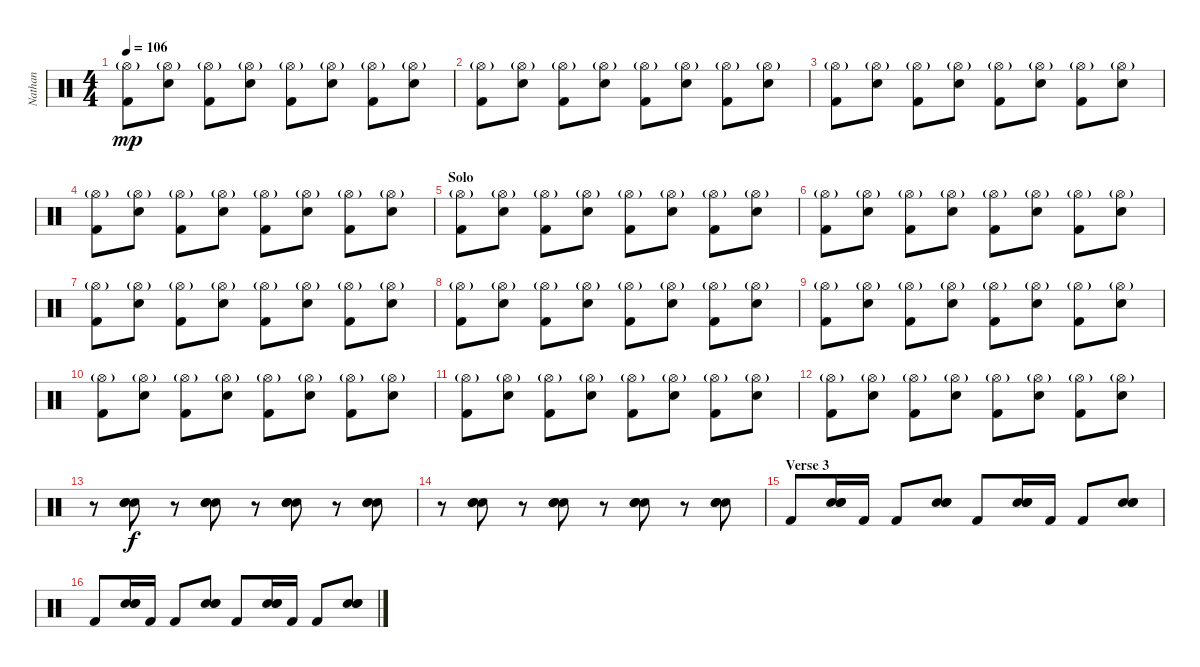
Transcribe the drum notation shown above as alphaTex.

\track ("Nathan" "Nathan") {instrument percussion}
\staff {score}
\articulation defaults
\ts (4 4)
\tempo 106
\clef neutral
\ks c
("Hi-Hat (open)"{g} "Kick (hit) 2").8{dy mp} ("Hi-Hat (open)"{g} "Snare (hit) 2").8 ("Hi-Hat (open)"{g} "Kick (hit) 2").8 ("Hi-Hat (open)"{g} "Snare (hit) 2").8 ("Hi-Hat (open)"{g} "Kick (hit) 2").8 ("Hi-Hat (open)"{g} "Snare (hit) 2").8 ("Hi-Hat (open)"{g} "Kick (hit) 2").8 ("Hi-Hat (open)"{g} "Snare (hit) 2").8 |
("Hi-Hat (open)"{g} "Kick (hit) 2").8 ("Hi-Hat (open)"{g} "Snare (hit) 2").8 ("Hi-Hat (open)"{g} "Kick (hit) 2").8 ("Hi-Hat (open)"{g} "Snare (hit) 2").8 ("Hi-Hat (open)"{g} "Kick (hit) 2").8 ("Hi-Hat (open)"{g} "Snare (hit) 2").8 ("Hi-Hat (open)"{g} "Kick (hit) 2").8 ("Hi-Hat (open)"{g} "Snare (hit) 2").8 |
("Hi-Hat (open)"{g} "Kick (hit) 2").8 ("Hi-Hat (open)"{g} "Snare (hit) 2").8 ("Hi-Hat (open)"{g} "Kick (hit) 2").8 ("Hi-Hat (open)"{g} "Snare (hit) 2").8 ("Hi-Hat (open)"{g} "Kick (hit) 2").8 ("Hi-Hat (open)"{g} "Snare (hit) 2").8 ("Hi-Hat (open)"{g} "Kick (hit) 2").8 ("Hi-Hat (open)"{g} "Snare (hit) 2").8 |
("Hi-Hat (open)"{g} "Kick (hit) 2").8 ("Hi-Hat (open)"{g} "Snare (hit) 2").8 ("Hi-Hat (open)"{g} "Kick (hit) 2").8 ("Hi-Hat (open)"{g} "Snare (hit) 2").8 ("Hi-Hat (open)"{g} "Kick (hit) 2").8 ("Hi-Hat (open)"{g} "Snare (hit) 2").8 ("Hi-Hat (open)"{g} "Kick (hit) 2").8 ("Hi-Hat (open)"{g} "Snare (hit) 2").8 |
\section ("" "Solo")
("Hi-Hat (open)"{g} "Kick (hit) 2").8 ("Hi-Hat (open)"{g} "Snare (hit) 2").8 ("Hi-Hat (open)"{g} "Kick (hit) 2").8 ("Hi-Hat (open)"{g} "Snare (hit) 2").8 ("Hi-Hat (open)"{g} "Kick (hit) 2").8 ("Hi-Hat (open)"{g} "Snare (hit) 2").8 ("Hi-Hat (open)"{g} "Kick (hit) 2").8 ("Hi-Hat (open)"{g} "Snare (hit) 2").8 |
("Hi-Hat (open)"{g} "Kick (hit) 2").8 ("Hi-Hat (open)"{g} "Snare (hit) 2").8 ("Hi-Hat (open)"{g} "Kick (hit) 2").8 ("Hi-Hat (open)"{g} "Snare (hit) 2").8 ("Hi-Hat (open)"{g} "Kick (hit) 2").8 ("Hi-Hat (open)"{g} "Snare (hit) 2").8 ("Hi-Hat (open)"{g} "Kick (hit) 2").8 ("Hi-Hat (open)"{g} "Snare (hit) 2").8 |
("Hi-Hat (open)"{g} "Kick (hit) 2").8 ("Hi-Hat (open)"{g} "Snare (hit) 2").8 ("Hi-Hat (open)"{g} "Kick (hit) 2").8 ("Hi-Hat (open)"{g} "Snare (hit) 2").8 ("Hi-Hat (open)"{g} "Kick (hit) 2").8 ("Hi-Hat (open)"{g} "Snare (hit) 2").8 ("Hi-Hat (open)"{g} "Kick (hit) 2").8 ("Hi-Hat (open)"{g} "Snare (hit) 2").8 |
("Hi-Hat (open)"{g} "Kick (hit) 2").8 ("Hi-Hat (open)"{g} "Snare (hit) 2").8 ("Hi-Hat (open)"{g} "Kick (hit) 2").8 ("Hi-Hat (open)"{g} "Snare (hit) 2").8 ("Hi-Hat (open)"{g} "Kick (hit) 2").8 ("Hi-Hat (open)"{g} "Snare (hit) 2").8 ("Hi-Hat (open)"{g} "Kick (hit) 2").8 ("Hi-Hat (open)"{g} "Snare (hit) 2").8 |
("Hi-Hat (open)"{g} "Kick (hit) 2").8 ("Hi-Hat (open)"{g} "Snare (hit) 2").8 ("Hi-Hat (open)"{g} "Kick (hit) 2").8 ("Hi-Hat (open)"{g} "Snare (hit) 2").8 ("Hi-Hat (open)"{g} "Kick (hit) 2").8 ("Hi-Hat (open)"{g} "Snare (hit) 2").8 ("Hi-Hat (open)"{g} "Kick (hit) 2").8 ("Hi-Hat (open)"{g} "Snare (hit) 2").8 |
("Hi-Hat (open)"{g} "Kick (hit) 2").8 ("Hi-Hat (open)"{g} "Snare (hit) 2").8 ("Hi-Hat (open)"{g} "Kick (hit) 2").8 ("Hi-Hat (open)"{g} "Snare (hit) 2").8 ("Hi-Hat (open)"{g} "Kick (hit) 2").8 ("Hi-Hat (open)"{g} "Snare (hit) 2").8 ("Hi-Hat (open)"{g} "Kick (hit) 2").8 ("Hi-Hat (open)"{g} "Snare (hit) 2").8 |
("Hi-Hat (open)"{g} "Kick (hit) 2").8 ("Hi-Hat (open)"{g} "Snare (hit) 2").8 ("Hi-Hat (open)"{g} "Kick (hit) 2").8 ("Hi-Hat (open)"{g} "Snare (hit) 2").8 ("Hi-Hat (open)"{g} "Kick (hit) 2").8 ("Hi-Hat (open)"{g} "Snare (hit) 2").8 ("Hi-Hat (open)"{g} "Kick (hit) 2").8 ("Hi-Hat (open)"{g} "Snare (hit) 2").8 |
("Hi-Hat (open)"{g} "Kick (hit) 2").8 ("Hi-Hat (open)"{g} "Snare (hit) 2").8 ("Hi-Hat (open)"{g} "Kick (hit) 2").8 ("Hi-Hat (open)"{g} "Snare (hit) 2").8 ("Hi-Hat (open)"{g} "Kick (hit) 2").8 ("Hi-Hat (open)"{g} "Snare (hit) 2").8 ("Hi-Hat (open)"{g} "Kick (hit) 2").8 ("Hi-Hat (open)"{g} "Snare (hit) 2").8 |
r.8 ("Hand Clap (hit)" "Hand Clap (hit)" "Hand Clap (hit)").8{dy f} r.8 ("Hand Clap (hit)" "Hand Clap (hit)" "Hand Clap (hit)").8 r.8 ("Hand Clap (hit)" "Hand Clap (hit)" "Hand Clap (hit)").8 r.8 ("Hand Clap (hit)" "Hand Clap (hit)" "Hand Clap (hit)").8 |
r.8 ("Hand Clap (hit)" "Hand Clap (hit)" "Hand Clap (hit)").8 r.8 ("Hand Clap (hit)" "Hand Clap (hit)" "Hand Clap (hit)").8 r.8 ("Hand Clap (hit)" "Hand Clap (hit)" "Hand Clap (hit)").8 r.8 ("Hand Clap (hit)" "Hand Clap (hit)" "Hand Clap (hit)").8 |
\section ("" "Verse 3")
"Kick (hit) 2".8 ("Hand Clap (hit)" "Hand Clap (hit)" "Hand Clap (hit)").16 "Kick (hit) 2".16 "Kick (hit) 2".8 ("Hand Clap (hit)" "Hand Clap (hit)" "Hand Clap (hit)").8 "Kick (hit) 2".8 ("Hand Clap (hit)" "Hand Clap (hit)" "Hand Clap (hit)").16 "Kick (hit) 2".16 "Kick (hit) 2".8 ("Hand Clap (hit)" "Hand Clap (hit)" "Hand Clap (hit)").8 |
"Kick (hit) 2".8 ("Hand Clap (hit)" "Hand Clap (hit)" "Hand Clap (hit)").16 "Kick (hit) 2".16 "Kick (hit) 2".8 ("Hand Clap (hit)" "Hand Clap (hit)" "Hand Clap (hit)").8 "Kick (hit) 2".8 ("Hand Clap (hit)" "Hand Clap (hit)" "Hand Clap (hit)").16 "Kick (hit) 2".16 "Kick (hit) 2".8 ("Hand Clap (hit)" "Hand Clap (hit)" "Hand Clap (hit)").8
